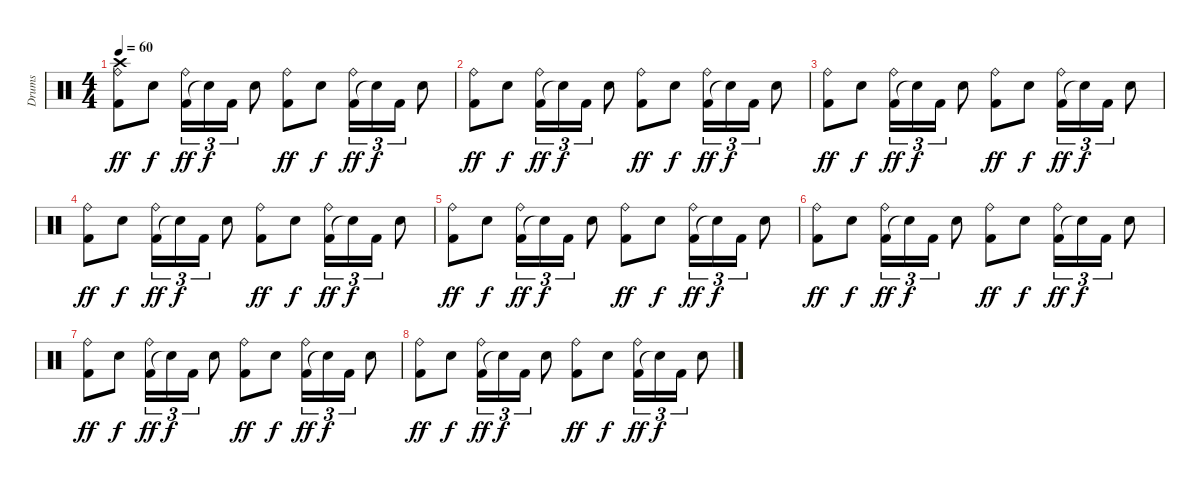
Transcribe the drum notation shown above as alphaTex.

\track ("Drums" "Drums") {instrument percussion}
\staff {score}
\articulation defaults
\ts (4 4)
\tempo 60
\clef neutral
\ks c
("Kick (hit) 2" "Ride (bell)" "Crash high (hit)").8{dy ff volume 2} "Electric Snare (hit)".8{dy f} ("Kick (hit) 2" "Ride (bell)").16{tu (3 2) dy ff} "Snare (hit)"{t}.16{tu (3 2) dy f} "Kick (hit) 2".16{tu (3 2)} "Electric Snare (hit)".8 ("Kick (hit) 2" "Ride (bell)").8{dy ff} "Electric Snare (hit)".8{dy f} ("Kick (hit) 2" "Ride (bell)").16{tu (3 2) dy ff} "Snare (hit)"{t}.16{tu (3 2) dy f} "Kick (hit) 2".16{tu (3 2)} "Electric Snare (hit)".8 |
("Kick (hit) 2" "Ride (bell)").8{dy ff} "Electric Snare (hit)".8{dy f} ("Kick (hit) 2" "Ride (bell)").16{tu (3 2) dy ff} "Snare (hit)"{t}.16{tu (3 2) dy f} "Kick (hit) 2".16{tu (3 2)} "Electric Snare (hit)".8 ("Kick (hit) 2" "Ride (bell)").8{dy ff} "Electric Snare (hit)".8{dy f} ("Kick (hit) 2" "Ride (bell)").16{tu (3 2) dy ff} "Snare (hit)"{t}.16{tu (3 2) dy f} "Kick (hit) 2".16{tu (3 2)} "Electric Snare (hit)".8 |
("Kick (hit) 2" "Ride (bell)").8{dy ff} "Electric Snare (hit)".8{dy f} ("Kick (hit) 2" "Ride (bell)").16{tu (3 2) dy ff} "Snare (hit)"{t}.16{tu (3 2) dy f} "Kick (hit) 2".16{tu (3 2)} "Electric Snare (hit)".8 ("Kick (hit) 2" "Ride (bell)").8{dy ff} "Electric Snare (hit)".8{dy f} ("Kick (hit) 2" "Ride (bell)").16{tu (3 2) dy ff} "Snare (hit)"{t}.16{tu (3 2) dy f} "Kick (hit) 2".16{tu (3 2)} "Electric Snare (hit)".8 |
("Kick (hit) 2" "Ride (bell)").8{dy ff} "Electric Snare (hit)".8{dy f} ("Kick (hit) 2" "Ride (bell)").16{tu (3 2) dy ff} "Snare (hit)"{t}.16{tu (3 2) dy f} "Kick (hit) 2".16{tu (3 2)} "Electric Snare (hit)".8 ("Kick (hit) 2" "Ride (bell)").8{dy ff} "Electric Snare (hit)".8{dy f} ("Kick (hit) 2" "Ride (bell)").16{tu (3 2) dy ff} "Snare (hit)"{t}.16{tu (3 2) dy f} "Kick (hit) 2".16{tu (3 2)} "Electric Snare (hit)".8 |
("Kick (hit) 2" "Ride (bell)").8{dy ff} "Electric Snare (hit)".8{dy f} ("Kick (hit) 2" "Ride (bell)").16{tu (3 2) dy ff} "Snare (hit)"{t}.16{tu (3 2) dy f} "Kick (hit) 2".16{tu (3 2)} "Electric Snare (hit)".8 ("Kick (hit) 2" "Ride (bell)").8{dy ff} "Electric Snare (hit)".8{dy f} ("Kick (hit) 2" "Ride (bell)").16{tu (3 2) dy ff} "Snare (hit)"{t}.16{tu (3 2) dy f} "Kick (hit) 2".16{tu (3 2)} "Electric Snare (hit)".8 |
("Kick (hit) 2" "Ride (bell)").8{dy ff} "Electric Snare (hit)".8{dy f} ("Kick (hit) 2" "Ride (bell)").16{tu (3 2) dy ff} "Snare (hit)"{t}.16{tu (3 2) dy f} "Kick (hit) 2".16{tu (3 2)} "Electric Snare (hit)".8 ("Kick (hit) 2" "Ride (bell)").8{dy ff} "Electric Snare (hit)".8{dy f} ("Kick (hit) 2" "Ride (bell)").16{tu (3 2) dy ff} "Snare (hit)"{t}.16{tu (3 2) dy f} "Kick (hit) 2".16{tu (3 2)} "Electric Snare (hit)".8 |
("Kick (hit) 2" "Ride (bell)").8{dy ff} "Electric Snare (hit)".8{dy f} ("Kick (hit) 2" "Ride (bell)").16{tu (3 2) dy ff} "Snare (hit)"{t}.16{tu (3 2) dy f} "Kick (hit) 2".16{tu (3 2)} "Electric Snare (hit)".8 ("Kick (hit) 2" "Ride (bell)").8{dy ff} "Electric Snare (hit)".8{dy f} ("Kick (hit) 2" "Ride (bell)").16{tu (3 2) dy ff} "Snare (hit)"{t}.16{tu (3 2) dy f} "Kick (hit) 2".16{tu (3 2)} "Electric Snare (hit)".8 |
("Kick (hit) 2" "Ride (bell)").8{dy ff} "Electric Snare (hit)".8{dy f} ("Kick (hit) 2" "Ride (bell)").16{tu (3 2) dy ff} "Snare (hit)"{t}.16{tu (3 2) dy f} "Kick (hit) 2".16{tu (3 2)} "Electric Snare (hit)".8 ("Kick (hit) 2" "Ride (bell)").8{dy ff} "Electric Snare (hit)".8{dy f} ("Kick (hit) 2" "Ride (bell)").16{tu (3 2) dy ff} "Snare (hit)"{t}.16{tu (3 2) dy f} "Kick (hit) 2".16{tu (3 2)} "Electric Snare (hit)".8
